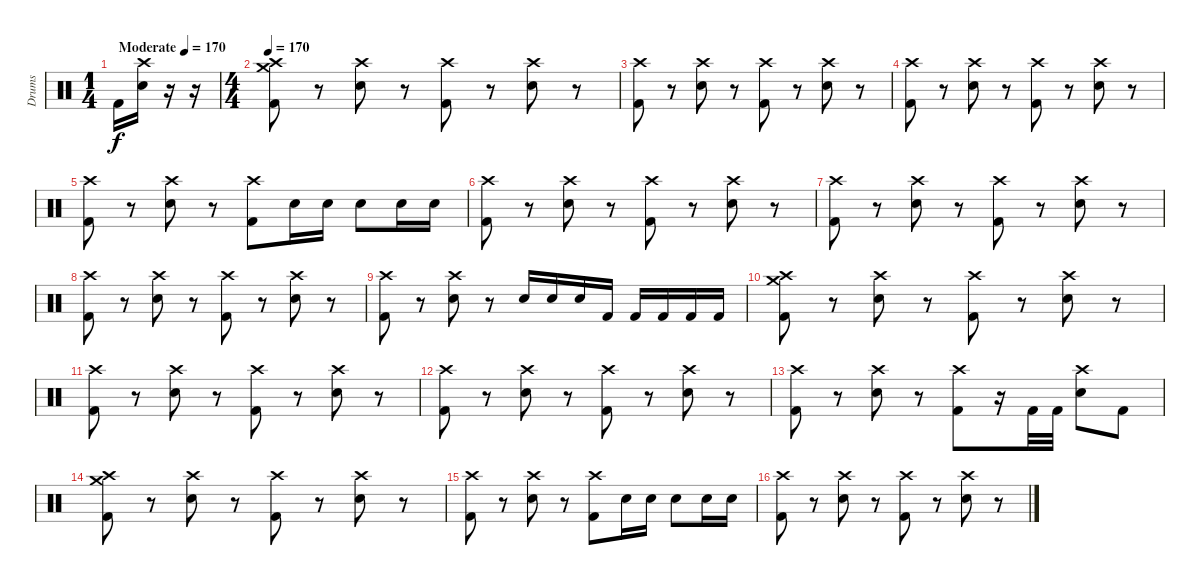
\track ("Drums" "Drums") {instrument percussion}
\staff {score}
\articulation defaults
\ts (1 4)
\tempo (170 "Moderate")
\tempo 110
\tempo (170 "Moderate")
\clef neutral
\ks c "Kick (hit) 2".16{dy f}
("Crash high (hit)" "Snare (hit) 2").16 r.16 r.16 |
\ts (4 4)
\tempo 170
("Crash medium (hit)" "Crash high (hit)" "Kick (hit) 2").8 r.8 ("Crash high (hit)" "Snare (hit) 2").8 r.8 ("Crash high (hit)" "Kick (hit) 2").8 r.8 ("Crash high (hit)" "Snare (hit) 2").8 r.8 |
("Crash high (hit)" "Kick (hit) 2").8 r.8 ("Crash high (hit)" "Snare (hit) 2").8 r.8 ("Crash high (hit)" "Kick (hit) 2").8 r.8 ("Crash high (hit)" "Snare (hit) 2").8 r.8 |
("Crash high (hit)" "Kick (hit) 2").8 r.8 ("Crash high (hit)" "Snare (hit) 2").8 r.8 ("Crash high (hit)" "Kick (hit) 2").8 r.8 ("Crash high (hit)" "Snare (hit) 2").8 r.8 |
("Crash high (hit)" "Kick (hit) 2").8 r.8 ("Crash high (hit)" "Snare (hit) 2").8 r.8 ("Crash high (hit)" "Kick (hit) 2").8 "Snare (hit) 2".16 "Snare (hit) 2".16 "Snare (hit) 2".8 "Snare (hit) 2".16 "Snare (hit) 2".16 |
("Crash high (hit)" "Kick (hit) 2").8 r.8 ("Crash high (hit)" "Snare (hit) 2").8 r.8 ("Crash high (hit)" "Kick (hit) 2").8 r.8 ("Crash high (hit)" "Snare (hit) 2").8 r.8 |
("Crash high (hit)" "Kick (hit) 2").8 r.8 ("Crash high (hit)" "Snare (hit) 2").8 r.8 ("Crash high (hit)" "Kick (hit) 2").8 r.8 ("Crash high (hit)" "Snare (hit) 2").8 r.8 |
("Crash high (hit)" "Kick (hit) 2").8 r.8 ("Crash high (hit)" "Snare (hit) 2").8 r.8 ("Crash high (hit)" "Kick (hit) 2").8 r.8 ("Crash high (hit)" "Snare (hit) 2").8 r.8 |
("Crash high (hit)" "Kick (hit) 2").8 r.8 ("Crash high (hit)" "Snare (hit) 2").8 r.8 "Snare (hit) 2".16 "Snare (hit) 2".16 "Snare (hit) 2".16 "Kick (hit) 2".16 "Kick (hit) 2".16 "Kick (hit) 2".16 "Kick (hit) 2".16 "Kick (hit) 2".16 |
("Crash medium (hit)" "Crash high (hit)" "Kick (hit) 2").8 r.8 ("Crash high (hit)" "Snare (hit) 2").8 r.8 ("Crash high (hit)" "Kick (hit) 2").8 r.8 ("Crash high (hit)" "Snare (hit) 2").8 r.8 |
("Crash high (hit)" "Kick (hit) 2").8 r.8 ("Crash high (hit)" "Snare (hit) 2").8 r.8 ("Crash high (hit)" "Kick (hit) 2").8 r.8 ("Crash high (hit)" "Snare (hit) 2").8 r.8 |
("Crash high (hit)" "Kick (hit) 2").8 r.8 ("Crash high (hit)" "Snare (hit) 2").8 r.8 ("Crash high (hit)" "Kick (hit) 2").8 r.8 ("Crash high (hit)" "Snare (hit) 2").8 r.8 |
("Crash high (hit)" "Kick (hit) 2").8 r.8 ("Crash high (hit)" "Snare (hit) 2").8 r.8 ("Crash high (hit)" "Kick (hit) 2").8 r.16 "Kick (hit) 2".32 "Kick (hit) 2".32 ("Crash high (hit)" "Snare (hit) 2").8 "Kick (hit) 2".8 |
("Crash medium (hit)" "Crash high (hit)" "Kick (hit) 2").8 r.8 ("Crash high (hit)" "Snare (hit) 2").8 r.8 ("Crash high (hit)" "Kick (hit) 2").8 r.8 ("Crash high (hit)" "Snare (hit) 2").8 r.8 |
("Crash high (hit)" "Kick (hit) 2").8 r.8 ("Crash high (hit)" "Snare (hit) 2").8 r.8 ("Crash high (hit)" "Kick (hit) 2").8 "Snare (hit) 2".16 "Snare (hit) 2".16 "Snare (hit) 2".8 "Snare (hit) 2".16 "Snare (hit) 2".16 |
("Crash high (hit)" "Kick (hit) 2").8 r.8 ("Crash high (hit)" "Snare (hit) 2").8 r.8 ("Crash high (hit)" "Kick (hit) 2").8 r.8 ("Crash high (hit)" "Snare (hit) 2").8 r.8
